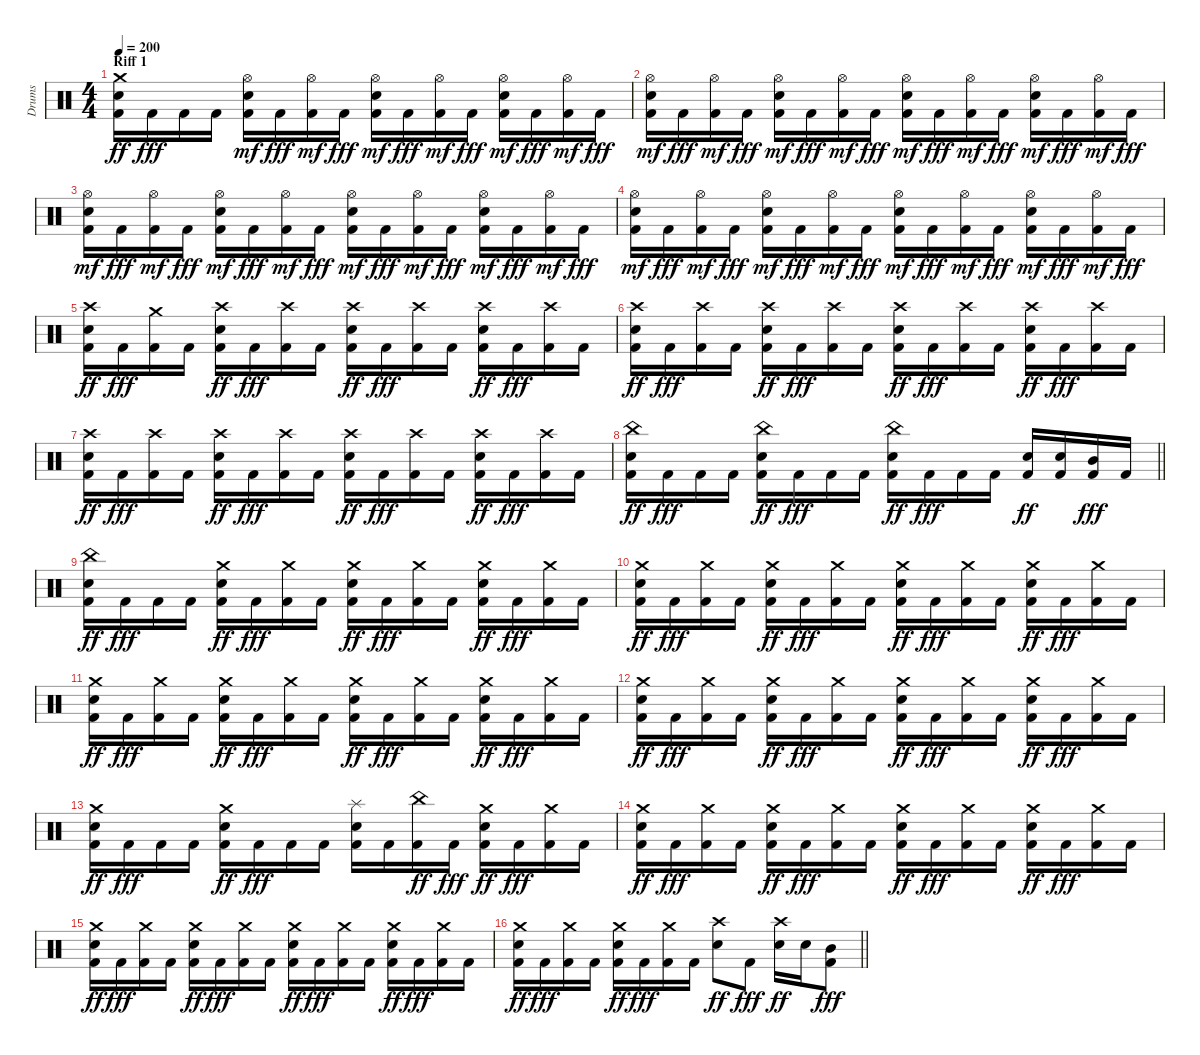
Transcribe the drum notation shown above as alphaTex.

\track ("Drums" "Drums") {instrument percussion}
\staff {score}
\articulation defaults
\ts (4 4)
\section ("" "Riff 1")
\tempo 200
\clef neutral
\ks c
("Kick (hit) 2" "Snare (hit) 2" "Crash medium (hit)").16{dy ff} "Kick (hit) 2".16{dy fff} "Kick (hit) 2".16 "Kick (hit) 2".16 ("Kick (hit) 2" "Snare (hit) 2" "Hi-Hat (open)").16{dy mf} "Kick (hit) 2".16{dy fff} ("Kick (hit) 2" "Hi-Hat (open)").16{dy mf} "Kick (hit) 2".16{dy fff} ("Kick (hit) 2" "Snare (hit) 2" "Hi-Hat (open)").16{dy mf} "Kick (hit) 2".16{dy fff} ("Kick (hit) 2" "Hi-Hat (open)").16{dy mf} "Kick (hit) 2".16{dy fff} ("Kick (hit) 2" "Snare (hit) 2" "Hi-Hat (open)").16{dy mf} "Kick (hit) 2".16{dy fff} ("Kick (hit) 2" "Hi-Hat (open)").16{dy mf} "Kick (hit) 2".16{dy fff} |
("Kick (hit) 2" "Snare (hit) 2" "Hi-Hat (open)").16{dy mf} "Kick (hit) 2".16{dy fff} ("Kick (hit) 2" "Hi-Hat (open)").16{dy mf} "Kick (hit) 2".16{dy fff} ("Kick (hit) 2" "Snare (hit) 2" "Hi-Hat (open)").16{dy mf} "Kick (hit) 2".16{dy fff} ("Kick (hit) 2" "Hi-Hat (open)").16{dy mf} "Kick (hit) 2".16{dy fff} ("Kick (hit) 2" "Snare (hit) 2" "Hi-Hat (open)").16{dy mf} "Kick (hit) 2".16{dy fff} ("Kick (hit) 2" "Hi-Hat (open)").16{dy mf} "Kick (hit) 2".16{dy fff} ("Kick (hit) 2" "Snare (hit) 2" "Hi-Hat (open)").16{dy mf} "Kick (hit) 2".16{dy fff} ("Kick (hit) 2" "Hi-Hat (open)").16{dy mf} "Kick (hit) 2".16{dy fff} |
("Kick (hit) 2" "Snare (hit) 2" "Hi-Hat (open)").16{dy mf} "Kick (hit) 2".16{dy fff} ("Kick (hit) 2" "Hi-Hat (open)").16{dy mf} "Kick (hit) 2".16{dy fff} ("Kick (hit) 2" "Snare (hit) 2" "Hi-Hat (open)").16{dy mf} "Kick (hit) 2".16{dy fff} ("Kick (hit) 2" "Hi-Hat (open)").16{dy mf} "Kick (hit) 2".16{dy fff} ("Kick (hit) 2" "Snare (hit) 2" "Hi-Hat (open)").16{dy mf} "Kick (hit) 2".16{dy fff} ("Kick (hit) 2" "Hi-Hat (open)").16{dy mf} "Kick (hit) 2".16{dy fff} ("Kick (hit) 2" "Snare (hit) 2" "Hi-Hat (open)").16{dy mf} "Kick (hit) 2".16{dy fff} ("Kick (hit) 2" "Hi-Hat (open)").16{dy mf} "Kick (hit) 2".16{dy fff} |
("Kick (hit) 2" "Snare (hit) 2" "Hi-Hat (open)").16{dy mf} "Kick (hit) 2".16{dy fff} ("Kick (hit) 2" "Hi-Hat (open)").16{dy mf} "Kick (hit) 2".16{dy fff} ("Kick (hit) 2" "Snare (hit) 2" "Hi-Hat (open)").16{dy mf} "Kick (hit) 2".16{dy fff} ("Kick (hit) 2" "Hi-Hat (open)").16{dy mf} "Kick (hit) 2".16{dy fff} ("Kick (hit) 2" "Snare (hit) 2" "Hi-Hat (open)").16{dy mf} "Kick (hit) 2".16{dy fff} ("Kick (hit) 2" "Hi-Hat (open)").16{dy mf} "Kick (hit) 2".16{dy fff} ("Kick (hit) 2" "Snare (hit) 2" "Hi-Hat (open)").16{dy mf} "Kick (hit) 2".16{dy fff} ("Kick (hit) 2" "Hi-Hat (open)").16{dy mf} "Kick (hit) 2".16{dy fff} |
("Kick (hit) 2" "Snare (hit) 2" "Crash high (hit)").16{dy ff} "Kick (hit) 2".16{dy fff} ("Kick (hit) 2" "Crash medium (hit)").16 "Kick (hit) 2".16 ("Kick (hit) 2" "Snare (hit) 2" "Crash high (hit)").16{dy ff} "Kick (hit) 2".16{dy fff} ("Kick (hit) 2" "Crash high (hit)").16 "Kick (hit) 2".16 ("Kick (hit) 2" "Snare (hit) 2" "Crash high (hit)").16{dy ff} "Kick (hit) 2".16{dy fff} ("Kick (hit) 2" "Crash high (hit)").16 "Kick (hit) 2".16 ("Kick (hit) 2" "Snare (hit) 2" "Crash high (hit)").16{dy ff} "Kick (hit) 2".16{dy fff} ("Kick (hit) 2" "Crash high (hit)").16 "Kick (hit) 2".16 |
("Kick (hit) 2" "Snare (hit) 2" "Crash high (hit)").16{dy ff} "Kick (hit) 2".16{dy fff} ("Kick (hit) 2" "Crash high (hit)").16 "Kick (hit) 2".16 ("Kick (hit) 2" "Snare (hit) 2" "Crash high (hit)").16{dy ff} "Kick (hit) 2".16{dy fff} ("Kick (hit) 2" "Crash high (hit)").16 "Kick (hit) 2".16 ("Kick (hit) 2" "Snare (hit) 2" "Crash high (hit)").16{dy ff} "Kick (hit) 2".16{dy fff} ("Kick (hit) 2" "Crash high (hit)").16 "Kick (hit) 2".16 ("Kick (hit) 2" "Snare (hit) 2" "Crash high (hit)").16{dy ff} "Kick (hit) 2".16{dy fff} ("Kick (hit) 2" "Crash high (hit)").16 "Kick (hit) 2".16 |
("Kick (hit) 2" "Snare (hit) 2" "Crash high (hit)").16{dy ff} "Kick (hit) 2".16{dy fff} ("Kick (hit) 2" "Crash high (hit)").16 "Kick (hit) 2".16 ("Kick (hit) 2" "Snare (hit) 2" "Crash high (hit)").16{dy ff} "Kick (hit) 2".16{dy fff} ("Kick (hit) 2" "Crash high (hit)").16 "Kick (hit) 2".16 ("Kick (hit) 2" "Snare (hit) 2" "Crash high (hit)").16{dy ff} "Kick (hit) 2".16{dy fff} ("Kick (hit) 2" "Crash high (hit)").16 "Kick (hit) 2".16 ("Kick (hit) 2" "Snare (hit) 2" "Crash high (hit)").16{dy ff} "Kick (hit) 2".16{dy fff} ("Kick (hit) 2" "Crash high (hit)").16 "Kick (hit) 2".16 |
\barLineRight lightlight
("Kick (hit) 2" "Snare (hit) 2" "China (hit)").16{dy ff} "Kick (hit) 2".16{dy fff} "Kick (hit) 2".16 "Kick (hit) 2".16 ("Kick (hit) 2" "Snare (hit) 2" "China (hit)").16{dy ff} "Kick (hit) 2".16{dy fff} "Kick (hit) 2".16 "Kick (hit) 2".16 ("Kick (hit) 2" "Snare (hit) 2" "China (hit)").16{dy ff} "Kick (hit) 2".16{dy fff} "Kick (hit) 2".16 "Kick (hit) 2".16 ("Kick (hit) 2" "Snare (hit) 2").16{dy ff} ("Kick (hit) 2" "Snare (hit) 2").16 ("Kick (hit) 2" "Mid Tom (hit)").16{dy fff} "Kick (hit) 2".16 |
("Kick (hit) 2" "Snare (hit) 2" "China (hit)").16{dy ff} "Kick (hit) 2".16{dy fff} "Kick (hit) 2".16 "Kick (hit) 2".16 ("Kick (hit) 2" "Snare (hit) 2" "Crash medium (hit)").16{dy ff} "Kick (hit) 2".16{dy fff} ("Kick (hit) 2" "Crash medium (hit)").16 "Kick (hit) 2".16 ("Kick (hit) 2" "Snare (hit) 2" "Crash medium (hit)").16{dy ff} "Kick (hit) 2".16{dy fff} ("Kick (hit) 2" "Crash medium (hit)").16 "Kick (hit) 2".16 ("Kick (hit) 2" "Snare (hit) 2" "Crash medium (hit)").16{dy ff} "Kick (hit) 2".16{dy fff} ("Kick (hit) 2" "Crash medium (hit)").16 "Kick (hit) 2".16 |
("Kick (hit) 2" "Snare (hit) 2" "Crash medium (hit)").16{dy ff} "Kick (hit) 2".16{dy fff} ("Kick (hit) 2" "Crash medium (hit)").16 "Kick (hit) 2".16 ("Kick (hit) 2" "Snare (hit) 2" "Crash medium (hit)").16{dy ff} "Kick (hit) 2".16{dy fff} ("Kick (hit) 2" "Crash medium (hit)").16 "Kick (hit) 2".16 ("Kick (hit) 2" "Snare (hit) 2" "Crash medium (hit)").16{dy ff} "Kick (hit) 2".16{dy fff} ("Kick (hit) 2" "Crash medium (hit)").16 "Kick (hit) 2".16 ("Kick (hit) 2" "Snare (hit) 2" "Crash medium (hit)").16{dy ff} "Kick (hit) 2".16{dy fff} ("Kick (hit) 2" "Crash medium (hit)").16 "Kick (hit) 2".16 |
("Kick (hit) 2" "Snare (hit) 2" "Crash medium (hit)").16{dy ff} "Kick (hit) 2".16{dy fff} ("Kick (hit) 2" "Crash medium (hit)").16 "Kick (hit) 2".16 ("Kick (hit) 2" "Snare (hit) 2" "Crash medium (hit)").16{dy ff} "Kick (hit) 2".16{dy fff} ("Kick (hit) 2" "Crash medium (hit)").16 "Kick (hit) 2".16 ("Kick (hit) 2" "Snare (hit) 2" "Crash medium (hit)").16{dy ff} "Kick (hit) 2".16{dy fff} ("Kick (hit) 2" "Crash medium (hit)").16 "Kick (hit) 2".16 ("Kick (hit) 2" "Snare (hit) 2" "Crash medium (hit)").16{dy ff} "Kick (hit) 2".16{dy fff} ("Kick (hit) 2" "Crash medium (hit)").16 "Kick (hit) 2".16 |
("Kick (hit) 2" "Snare (hit) 2" "Crash medium (hit)").16{dy ff} "Kick (hit) 2".16{dy fff} ("Kick (hit) 2" "Crash medium (hit)").16 "Kick (hit) 2".16 ("Kick (hit) 2" "Snare (hit) 2" "Crash medium (hit)").16{dy ff} "Kick (hit) 2".16{dy fff} ("Kick (hit) 2" "Crash medium (hit)").16 "Kick (hit) 2".16 ("Kick (hit) 2" "Snare (hit) 2" "Crash medium (hit)").16{dy ff} "Kick (hit) 2".16{dy fff} ("Kick (hit) 2" "Crash medium (hit)").16 "Kick (hit) 2".16 ("Kick (hit) 2" "Snare (hit) 2" "Crash medium (hit)").16{dy ff} "Kick (hit) 2".16{dy fff} ("Kick (hit) 2" "Crash medium (hit)").16 "Kick (hit) 2".16 |
("Kick (hit) 2" "Snare (hit) 2" "Crash medium (hit)").16{dy ff} "Kick (hit) 2".16{dy fff} "Kick (hit) 2".16 "Kick (hit) 2".16 ("Kick (hit) 2" "Snare (hit) 2" "Crash medium (hit)").16{dy ff} "Kick (hit) 2".16{dy fff} "Kick (hit) 2".16 "Kick (hit) 2".16 ("Kick (hit) 2" "Snare (hit) 2" "Splash (hit)").16 "Kick (hit) 2".16 ("Kick (hit) 2" "China (hit)").16{dy ff} "Kick (hit) 2".16{dy fff} ("Kick (hit) 2" "Snare (hit) 2" "Crash medium (hit)").16{dy ff} "Kick (hit) 2".16{dy fff} ("Kick (hit) 2" "Crash medium (hit)").16 "Kick (hit) 2".16 |
("Kick (hit) 2" "Snare (hit) 2" "Crash medium (hit)").16{dy ff} "Kick (hit) 2".16{dy fff} ("Kick (hit) 2" "Crash medium (hit)").16 "Kick (hit) 2".16 ("Kick (hit) 2" "Snare (hit) 2" "Crash medium (hit)").16{dy ff} "Kick (hit) 2".16{dy fff} ("Kick (hit) 2" "Crash medium (hit)").16 "Kick (hit) 2".16 ("Kick (hit) 2" "Snare (hit) 2" "Crash medium (hit)").16{dy ff} "Kick (hit) 2".16{dy fff} ("Kick (hit) 2" "Crash medium (hit)").16 "Kick (hit) 2".16 ("Kick (hit) 2" "Snare (hit) 2" "Crash medium (hit)").16{dy ff} "Kick (hit) 2".16{dy fff} ("Kick (hit) 2" "Crash medium (hit)").16 "Kick (hit) 2".16 |
("Kick (hit) 2" "Snare (hit) 2" "Crash medium (hit)").16{dy ff} "Kick (hit) 2".16{dy fff} ("Kick (hit) 2" "Crash medium (hit)").16 "Kick (hit) 2".16 ("Kick (hit) 2" "Snare (hit) 2" "Crash medium (hit)").16{dy ff} "Kick (hit) 2".16{dy fff} ("Kick (hit) 2" "Crash medium (hit)").16 "Kick (hit) 2".16 ("Kick (hit) 2" "Snare (hit) 2" "Crash medium (hit)").16{dy ff} "Kick (hit) 2".16{dy fff} ("Kick (hit) 2" "Crash medium (hit)").16 "Kick (hit) 2".16 ("Kick (hit) 2" "Snare (hit) 2" "Crash medium (hit)").16{dy ff} "Kick (hit) 2".16{dy fff} ("Kick (hit) 2" "Crash medium (hit)").16 "Kick (hit) 2".16 |
\barLineRight lightlight
("Kick (hit) 2" "Snare (hit) 2" "Crash medium (hit)").16{dy ff} "Kick (hit) 2".16{dy fff} ("Kick (hit) 2" "Crash medium (hit)").16 "Kick (hit) 2".16 ("Kick (hit) 2" "Snare (hit) 2" "Crash medium (hit)").16{dy ff} "Kick (hit) 2".16{dy fff} ("Kick (hit) 2" "Crash medium (hit)").16 "Kick (hit) 2".16 ("Snare (hit) 2" "Crash high (hit)").8{dy ff} "Kick (hit) 2".8{dy fff} ("Snare (hit) 2" "Crash high (hit)").16{dy ff} "Snare (hit) 2".16 ("Kick (hit) 2" "Mid Tom (hit)").8{dy fff}
